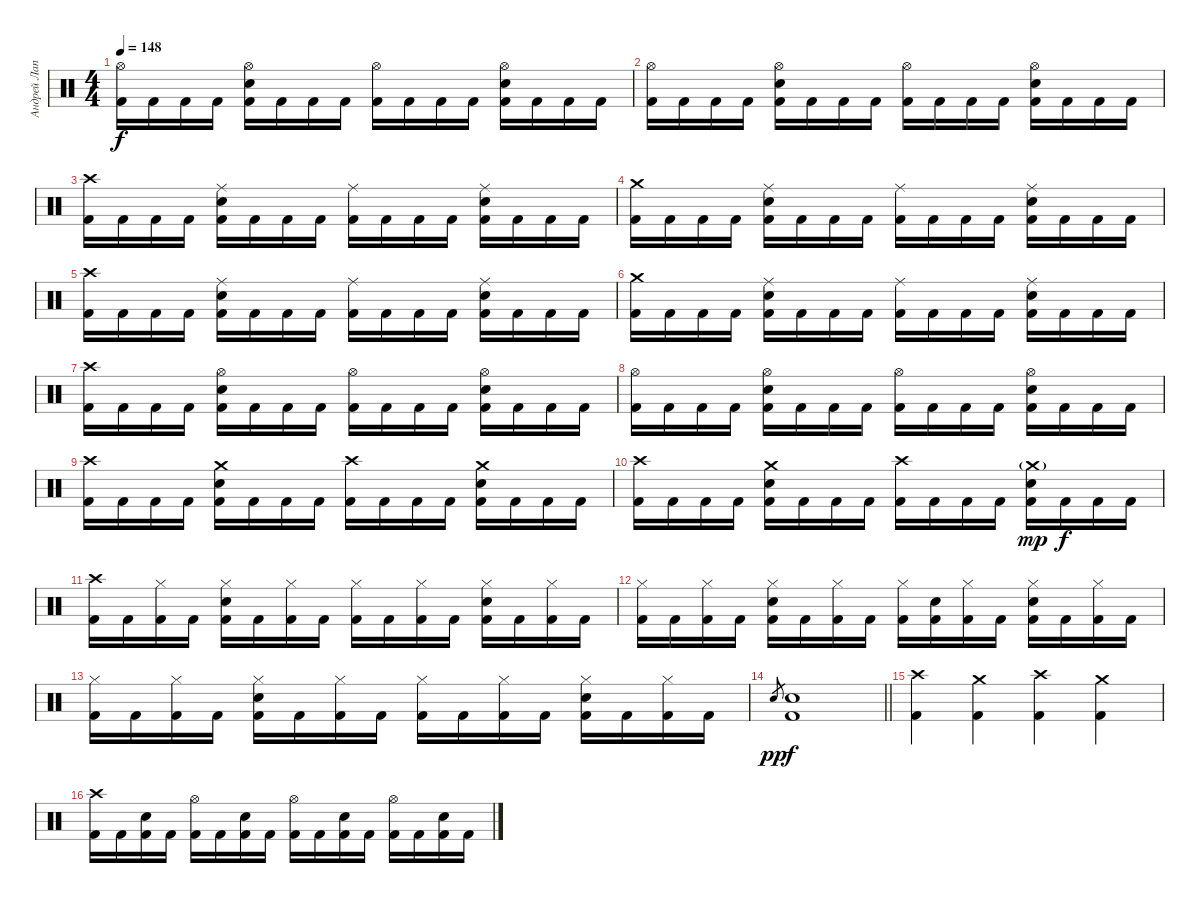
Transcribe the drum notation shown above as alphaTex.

\track ("Андрей Лаптев" "Андрей Лап") {instrument percussion}
\staff {score}
\articulation defaults
\ts (4 4)
\tempo 148
\clef neutral
\ks c
("Hi-Hat (open)" "Kick (hit) 2").16{dy f} "Kick (hit) 2".16 "Kick (hit) 2".16 "Kick (hit) 2".16 ("Hi-Hat (open)" "Electric Snare (hit)" "Kick (hit) 2").16 "Kick (hit) 2".16 "Kick (hit) 2".16 "Kick (hit) 2".16 ("Hi-Hat (open)" "Kick (hit) 2").16 "Kick (hit) 2".16 "Kick (hit) 2".16 "Kick (hit) 2".16 ("Hi-Hat (open)" "Electric Snare (hit)" "Kick (hit) 2").16 "Kick (hit) 2".16 "Kick (hit) 2".16 "Kick (hit) 2".16 |
("Hi-Hat (open)" "Kick (hit) 2").16 "Kick (hit) 2".16 "Kick (hit) 2".16 "Kick (hit) 2".16 ("Hi-Hat (open)" "Electric Snare (hit)" "Kick (hit) 2").16 "Kick (hit) 2".16 "Kick (hit) 2".16 "Kick (hit) 2".16 ("Hi-Hat (open)" "Kick (hit) 2").16 "Kick (hit) 2".16 "Kick (hit) 2".16 "Kick (hit) 2".16 ("Hi-Hat (open)" "Electric Snare (hit)" "Kick (hit) 2").16 "Kick (hit) 2".16 "Kick (hit) 2".16 "Kick (hit) 2".16 |
("Crash high (hit)" "Kick (hit) 2").16 "Kick (hit) 2".16 "Kick (hit) 2".16 "Kick (hit) 2".16 ("Ride (middle)" "Electric Snare (hit)" "Kick (hit) 2").16 "Kick (hit) 2".16 "Kick (hit) 2".16 "Kick (hit) 2".16 ("Ride (middle)" "Kick (hit) 2").16 "Kick (hit) 2".16 "Kick (hit) 2".16 "Kick (hit) 2".16 ("Ride (middle)" "Electric Snare (hit)" "Kick (hit) 2").16 "Kick (hit) 2".16 "Kick (hit) 2".16 "Kick (hit) 2".16 |
("Crash medium (hit)" "Kick (hit) 2").16 "Kick (hit) 2".16 "Kick (hit) 2".16 "Kick (hit) 2".16 ("Ride (middle)" "Electric Snare (hit)" "Kick (hit) 2").16 "Kick (hit) 2".16 "Kick (hit) 2".16 "Kick (hit) 2".16 ("Ride (middle)" "Kick (hit) 2").16 "Kick (hit) 2".16 "Kick (hit) 2".16 "Kick (hit) 2".16 ("Ride (middle)" "Electric Snare (hit)" "Kick (hit) 2").16 "Kick (hit) 2".16 "Kick (hit) 2".16 "Kick (hit) 2".16 |
("Crash high (hit)" "Kick (hit) 2").16 "Kick (hit) 2".16 "Kick (hit) 2".16 "Kick (hit) 2".16 ("Ride (middle)" "Electric Snare (hit)" "Kick (hit) 2").16 "Kick (hit) 2".16 "Kick (hit) 2".16 "Kick (hit) 2".16 ("Ride (middle)" "Kick (hit) 2").16 "Kick (hit) 2".16 "Kick (hit) 2".16 "Kick (hit) 2".16 ("Ride (middle)" "Electric Snare (hit)" "Kick (hit) 2").16 "Kick (hit) 2".16 "Kick (hit) 2".16 "Kick (hit) 2".16 |
("Crash medium (hit)" "Kick (hit) 2").16 "Kick (hit) 2".16 "Kick (hit) 2".16 "Kick (hit) 2".16 ("Ride (middle)" "Electric Snare (hit)" "Kick (hit) 2").16 "Kick (hit) 2".16 "Kick (hit) 2".16 "Kick (hit) 2".16 ("Ride (middle)" "Kick (hit) 2").16 "Kick (hit) 2".16 "Kick (hit) 2".16 "Kick (hit) 2".16 ("Ride (middle)" "Electric Snare (hit)" "Kick (hit) 2").16 "Kick (hit) 2".16 "Kick (hit) 2".16 "Kick (hit) 2".16 |
("Crash high (hit)" "Kick (hit) 2").16 "Kick (hit) 2".16 "Kick (hit) 2".16 "Kick (hit) 2".16 ("Hi-Hat (open)" "Electric Snare (hit)" "Kick (hit) 2").16 "Kick (hit) 2".16 "Kick (hit) 2".16 "Kick (hit) 2".16 ("Hi-Hat (open)" "Kick (hit) 2").16 "Kick (hit) 2".16 "Kick (hit) 2".16 "Kick (hit) 2".16 ("Hi-Hat (open)" "Electric Snare (hit)" "Kick (hit) 2").16 "Kick (hit) 2".16 "Kick (hit) 2".16 "Kick (hit) 2".16 |
("Hi-Hat (open)" "Kick (hit) 2").16 "Kick (hit) 2".16 "Kick (hit) 2".16 "Kick (hit) 2".16 ("Hi-Hat (open)" "Electric Snare (hit)" "Kick (hit) 2").16 "Kick (hit) 2".16 "Kick (hit) 2".16 "Kick (hit) 2".16 ("Hi-Hat (open)" "Kick (hit) 2").16 "Kick (hit) 2".16 "Kick (hit) 2".16 "Kick (hit) 2".16 ("Hi-Hat (open)" "Electric Snare (hit)" "Kick (hit) 2").16 "Kick (hit) 2".16 "Kick (hit) 2".16 "Kick (hit) 2".16 |
("Crash high (hit)" "Kick (hit) 2").16 "Kick (hit) 2".16 "Kick (hit) 2".16 "Kick (hit) 2".16 ("Crash medium (hit)" "Electric Snare (hit)" "Kick (hit) 2").16 "Kick (hit) 2".16 "Kick (hit) 2".16 "Kick (hit) 2".16 ("Crash high (hit)" "Kick (hit) 2").16 "Kick (hit) 2".16 "Kick (hit) 2".16 "Kick (hit) 2".16 ("Crash medium (hit)" "Electric Snare (hit)" "Kick (hit) 2").16 "Kick (hit) 2".16 "Kick (hit) 2".16 "Kick (hit) 2".16 |
("Crash high (hit)" "Kick (hit) 2").16 "Kick (hit) 2".16 "Kick (hit) 2".16 "Kick (hit) 2".16 ("Crash medium (hit)" "Electric Snare (hit)" "Kick (hit) 2").16 "Kick (hit) 2".16 "Kick (hit) 2".16 "Kick (hit) 2".16 ("Crash high (hit)" "Kick (hit) 2").16 "Kick (hit) 2".16 "Kick (hit) 2".16 "Kick (hit) 2".16 ("Crash medium (hit)"{g} "Electric Snare (hit)" "Kick (hit) 2").16{dy mp} "Kick (hit) 2".16{dy f} "Kick (hit) 2".16 "Kick (hit) 2".16 |
("Crash high (hit)" "Kick (hit) 2").16 "Kick (hit) 2".16 ("Hi-Hat (closed)" "Kick (hit) 2").16 "Kick (hit) 2".16 ("Hi-Hat (closed)" "Electric Snare (hit)" "Kick (hit) 2").16 "Kick (hit) 2".16 ("Hi-Hat (closed)" "Kick (hit) 2").16 "Kick (hit) 2".16 ("Hi-Hat (closed)" "Kick (hit) 2").16 "Kick (hit) 2".16 ("Hi-Hat (closed)" "Kick (hit) 2").16 "Kick (hit) 2".16 ("Hi-Hat (closed)" "Electric Snare (hit)" "Kick (hit) 2").16 "Kick (hit) 2".16 ("Hi-Hat (closed)" "Kick (hit) 2").16 "Kick (hit) 2".16 |
("Hi-Hat (closed)" "Kick (hit) 2").16 "Kick (hit) 2".16 ("Hi-Hat (closed)" "Kick (hit) 2").16 "Kick (hit) 2".16 ("Hi-Hat (closed)" "Electric Snare (hit)" "Kick (hit) 2").16 "Kick (hit) 2".16 ("Hi-Hat (closed)" "Kick (hit) 2").16 "Kick (hit) 2".16 ("Hi-Hat (closed)" "Kick (hit) 2").16 ("Electric Snare (hit)" "Kick (hit) 2").16 ("Hi-Hat (closed)" "Kick (hit) 2").16 "Kick (hit) 2".16 ("Hi-Hat (closed)" "Electric Snare (hit)" "Kick (hit) 2").16 "Kick (hit) 2".16 ("Hi-Hat (closed)" "Kick (hit) 2").16 "Kick (hit) 2".16 |
("Hi-Hat (closed)" "Kick (hit) 2").16 "Kick (hit) 2".16 ("Hi-Hat (closed)" "Kick (hit) 2").16 "Kick (hit) 2".16 ("Hi-Hat (closed)" "Electric Snare (hit)" "Kick (hit) 2").16 "Kick (hit) 2".16 ("Hi-Hat (closed)" "Kick (hit) 2").16 "Kick (hit) 2".16 ("Hi-Hat (closed)" "Kick (hit) 2").16 "Kick (hit) 2".16 ("Hi-Hat (closed)" "Kick (hit) 2").16 "Kick (hit) 2".16 ("Hi-Hat (closed)" "Electric Snare (hit)" "Kick (hit) 2").16 "Kick (hit) 2".16 ("Hi-Hat (closed)" "Kick (hit) 2").16 "Kick (hit) 2".16 |
\barLineRight lightlight "Electric Snare (hit)".8{gr dy pp}
("Electric Snare (hit)" "Kick (hit) 2").1{dy f} |
\section ("" "")
("Crash high (hit)" "Kick (hit) 2").4 ("Crash medium (hit)" "Kick (hit) 2").4 ("Crash high (hit)" "Kick (hit) 2").4 ("Crash medium (hit)" "Kick (hit) 2").4 |
("Crash high (hit)" "Kick (hit) 2").16 "Kick (hit) 2".16 ("Electric Snare (hit)" "Kick (hit) 2").16 "Kick (hit) 2".16 ("Hi-Hat (open)" "Kick (hit) 2").16 "Kick (hit) 2".16 ("Electric Snare (hit)" "Kick (hit) 2").16 "Kick (hit) 2".16 ("Hi-Hat (open)" "Kick (hit) 2").16 "Kick (hit) 2".16 ("Electric Snare (hit)" "Kick (hit) 2").16 "Kick (hit) 2".16 ("Hi-Hat (open)" "Kick (hit) 2").16 "Kick (hit) 2".16 ("Electric Snare (hit)" "Kick (hit) 2").16 "Kick (hit) 2".16
